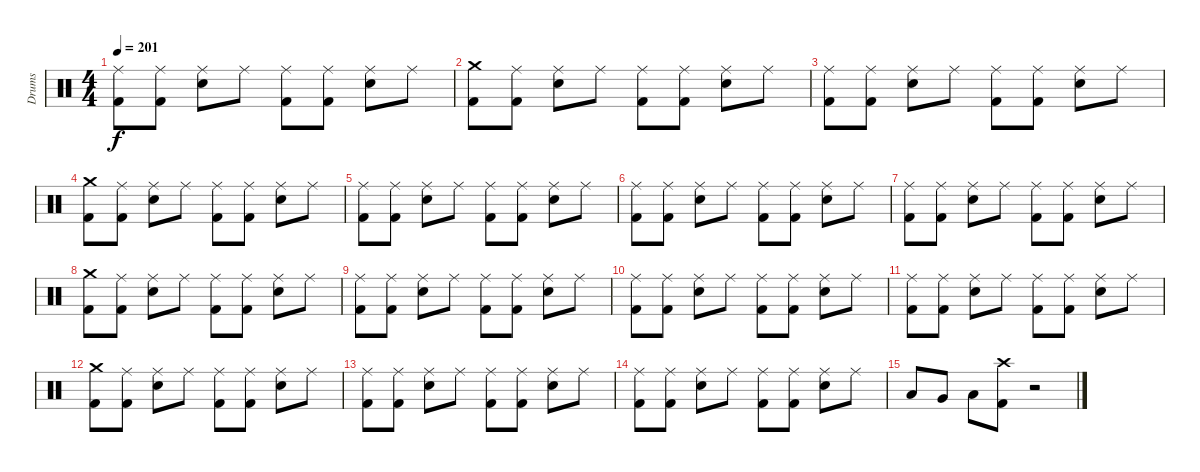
\track ("Drums" "Drums") {instrument percussion}
\staff {score}
\articulation defaults
\ts (4 4)
\tempo 201
\clef neutral
\ks c
("Ride (middle)" "Kick (hit) 2").8{dy f} ("Ride (middle)" "Kick (hit) 2").8 ("Ride (middle)" "Electric Snare (hit)").8 "Ride (middle)".8 ("Ride (middle)" "Kick (hit) 2").8 ("Ride (middle)" "Kick (hit) 2").8 ("Ride (middle)" "Electric Snare (hit)").8 "Ride (middle)".8 |
("Crash medium (hit)" "Kick (hit) 2").8 ("Ride (middle)" "Kick (hit) 2").8 ("Ride (middle)" "Electric Snare (hit)").8 "Ride (middle)".8 ("Ride (middle)" "Kick (hit) 2").8 ("Ride (middle)" "Kick (hit) 2").8 ("Ride (middle)" "Electric Snare (hit)").8 "Ride (middle)".8 |
("Ride (middle)" "Kick (hit) 2").8 ("Ride (middle)" "Kick (hit) 2").8 ("Ride (middle)" "Electric Snare (hit)").8 "Ride (middle)".8 ("Ride (middle)" "Kick (hit) 2").8 ("Ride (middle)" "Kick (hit) 2").8 ("Ride (middle)" "Electric Snare (hit)").8 "Ride (middle)".8 |
("Crash medium (hit)" "Kick (hit) 2").8 ("Ride (middle)" "Kick (hit) 2").8 ("Ride (middle)" "Electric Snare (hit)").8 "Ride (middle)".8 ("Ride (middle)" "Kick (hit) 2").8 ("Ride (middle)" "Kick (hit) 2").8 ("Ride (middle)" "Electric Snare (hit)").8 "Ride (middle)".8 |
("Ride (middle)" "Kick (hit) 2").8 ("Ride (middle)" "Kick (hit) 2").8 ("Ride (middle)" "Electric Snare (hit)").8 "Ride (middle)".8 ("Ride (middle)" "Kick (hit) 2").8 ("Ride (middle)" "Kick (hit) 2").8 ("Ride (middle)" "Electric Snare (hit)").8 "Ride (middle)".8 |
("Ride (middle)" "Kick (hit) 2").8 ("Ride (middle)" "Kick (hit) 2").8 ("Ride (middle)" "Electric Snare (hit)").8 "Ride (middle)".8 ("Ride (middle)" "Kick (hit) 2").8 ("Ride (middle)" "Kick (hit) 2").8 ("Ride (middle)" "Electric Snare (hit)").8 "Ride (middle)".8 |
("Ride (middle)" "Kick (hit) 2").8 ("Ride (middle)" "Kick (hit) 2").8 ("Ride (middle)" "Electric Snare (hit)").8 "Ride (middle)".8 ("Ride (middle)" "Kick (hit) 2").8 ("Ride (middle)" "Kick (hit) 2").8 ("Ride (middle)" "Electric Snare (hit)").8 "Ride (middle)".8 |
("Crash medium (hit)" "Kick (hit) 2").8 ("Ride (middle)" "Kick (hit) 2").8 ("Ride (middle)" "Electric Snare (hit)").8 "Ride (middle)".8 ("Ride (middle)" "Kick (hit) 2").8 ("Ride (middle)" "Kick (hit) 2").8 ("Ride (middle)" "Electric Snare (hit)").8 "Ride (middle)".8 |
("Ride (middle)" "Kick (hit) 2").8 ("Ride (middle)" "Kick (hit) 2").8 ("Ride (middle)" "Electric Snare (hit)").8 "Ride (middle)".8 ("Ride (middle)" "Kick (hit) 2").8 ("Ride (middle)" "Kick (hit) 2").8 ("Ride (middle)" "Electric Snare (hit)").8 "Ride (middle)".8 |
("Ride (middle)" "Kick (hit) 2").8 ("Ride (middle)" "Kick (hit) 2").8 ("Ride (middle)" "Electric Snare (hit)").8 "Ride (middle)".8 ("Ride (middle)" "Kick (hit) 2").8 ("Ride (middle)" "Kick (hit) 2").8 ("Ride (middle)" "Electric Snare (hit)").8 "Ride (middle)".8 |
("Ride (middle)" "Kick (hit) 2").8 ("Ride (middle)" "Kick (hit) 2").8 ("Ride (middle)" "Electric Snare (hit)").8 "Ride (middle)".8 ("Ride (middle)" "Kick (hit) 2").8 ("Ride (middle)" "Kick (hit) 2").8 ("Ride (middle)" "Electric Snare (hit)").8 "Ride (middle)".8 |
("Crash medium (hit)" "Kick (hit) 2").8 ("Ride (middle)" "Kick (hit) 2").8 ("Ride (middle)" "Electric Snare (hit)").8 "Ride (middle)".8 ("Ride (middle)" "Kick (hit) 2").8 ("Ride (middle)" "Kick (hit) 2").8 ("Ride (middle)" "Electric Snare (hit)").8 "Ride (middle)".8 |
("Ride (middle)" "Kick (hit) 2").8 ("Ride (middle)" "Kick (hit) 2").8 ("Ride (middle)" "Electric Snare (hit)").8 "Ride (middle)".8 ("Ride (middle)" "Kick (hit) 2").8 ("Ride (middle)" "Kick (hit) 2").8 ("Ride (middle)" "Electric Snare (hit)").8 "Ride (middle)".8 |
("Ride (middle)" "Kick (hit) 2").8 ("Ride (middle)" "Kick (hit) 2").8 ("Ride (middle)" "Electric Snare (hit)").8 "Ride (middle)".8 ("Ride (middle)" "Kick (hit) 2").8 ("Ride (middle)" "Kick (hit) 2").8 ("Ride (middle)" "Electric Snare (hit)").8 "Ride (middle)".8 |
"Low Tom (hit)".8 "Very Low Tom (hit)".8 "Low Floor Tom (hit)".8 ("Crash high (hit)" "Kick (hit) 2").8 r.2
